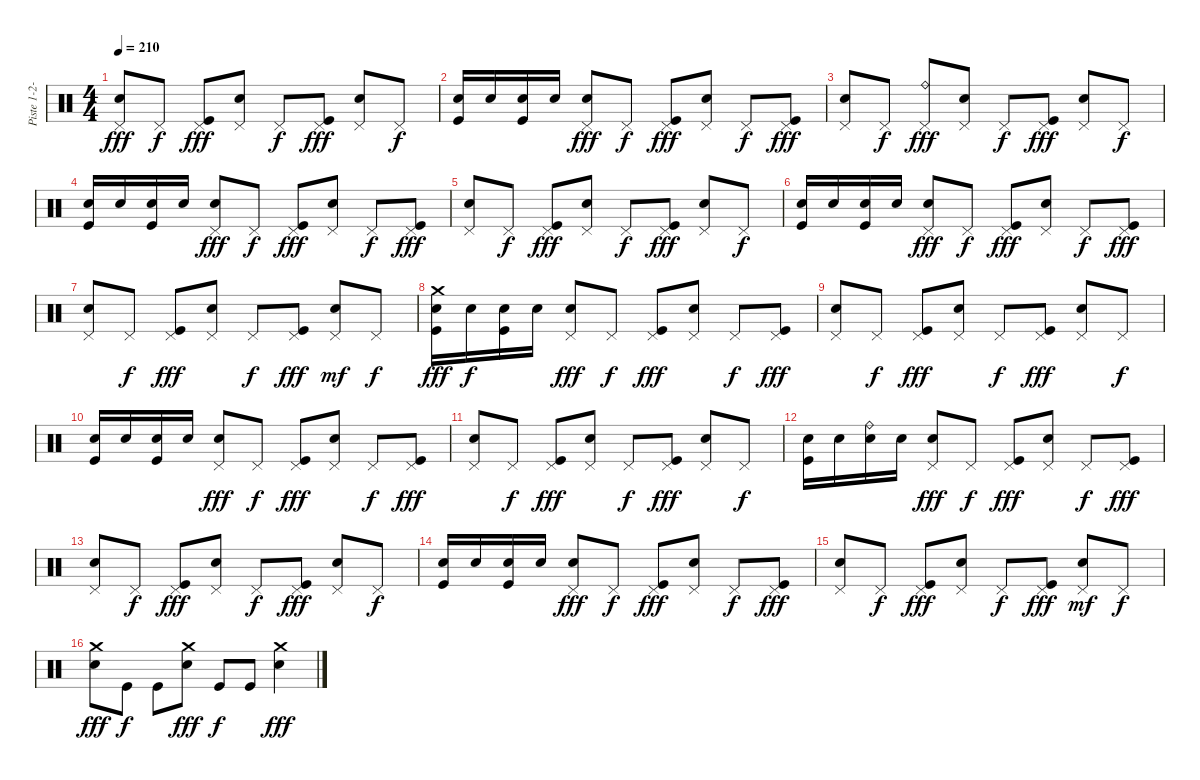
\track ("Piste 1-2-3-4" "Piste 1-2-") {instrument percussion}
\staff {score}
\articulation defaults
\ts (4 4)
\tempo 210
\clef neutral
\ks c
("Pedal Hi-Hat (hit)" "Snare (hit) 2").8{dy fff} "Pedal Hi-Hat (hit)".8{dy f} ("Pedal Hi-Hat (hit)" "Kick (hit)").8{dy fff} ("Pedal Hi-Hat (hit)" "Snare (hit) 2").8 "Pedal Hi-Hat (hit)".8{dy f} ("Pedal Hi-Hat (hit)" "Kick (hit)").8{dy fff} ("Pedal Hi-Hat (hit)" "Snare (hit) 2").8 "Pedal Hi-Hat (hit)".8{dy f} |
("Snare (hit) 2" "Kick (hit)").16 "Snare (hit) 2".16 ("Snare (hit) 2" "Kick (hit)").16 "Snare (hit) 2".16 ("Pedal Hi-Hat (hit)" "Snare (hit) 2").8{dy fff} "Pedal Hi-Hat (hit)".8{dy f} ("Pedal Hi-Hat (hit)" "Kick (hit)").8{dy fff} ("Pedal Hi-Hat (hit)" "Snare (hit) 2").8 "Pedal Hi-Hat (hit)".8{dy f} ("Pedal Hi-Hat (hit)" "Kick (hit)").8{dy fff} |
("Pedal Hi-Hat (hit)" "Snare (hit) 2").8 "Pedal Hi-Hat (hit)".8{dy f} ("Pedal Hi-Hat (hit)" "Ride (bell)").8{dy fff} ("Pedal Hi-Hat (hit)" "Snare (hit) 2").8 "Pedal Hi-Hat (hit)".8{dy f} ("Pedal Hi-Hat (hit)" "Kick (hit)").8{dy fff} ("Pedal Hi-Hat (hit)" "Snare (hit) 2").8 "Pedal Hi-Hat (hit)".8{dy f} |
("Snare (hit) 2" "Kick (hit)").16 "Snare (hit) 2".16 ("Snare (hit) 2" "Kick (hit)").16 "Snare (hit) 2".16 ("Pedal Hi-Hat (hit)" "Snare (hit) 2").8{dy fff} "Pedal Hi-Hat (hit)".8{dy f} ("Pedal Hi-Hat (hit)" "Kick (hit)").8{dy fff} ("Pedal Hi-Hat (hit)" "Snare (hit) 2").8 "Pedal Hi-Hat (hit)".8{dy f} ("Pedal Hi-Hat (hit)" "Kick (hit)").8{dy fff} |
("Pedal Hi-Hat (hit)" "Snare (hit) 2").8 "Pedal Hi-Hat (hit)".8{dy f} ("Pedal Hi-Hat (hit)" "Kick (hit)").8{dy fff} ("Pedal Hi-Hat (hit)" "Snare (hit) 2").8 "Pedal Hi-Hat (hit)".8{dy f} ("Pedal Hi-Hat (hit)" "Kick (hit)").8{dy fff} ("Pedal Hi-Hat (hit)" "Snare (hit) 2").8 "Pedal Hi-Hat (hit)".8{dy f} |
("Snare (hit) 2" "Kick (hit)").16 "Snare (hit) 2".16 ("Snare (hit) 2" "Kick (hit)").16 "Snare (hit) 2".16 ("Pedal Hi-Hat (hit)" "Snare (hit) 2").8{dy fff} "Pedal Hi-Hat (hit)".8{dy f} ("Pedal Hi-Hat (hit)" "Kick (hit)").8{dy fff} ("Pedal Hi-Hat (hit)" "Snare (hit) 2").8 "Pedal Hi-Hat (hit)".8{dy f} ("Pedal Hi-Hat (hit)" "Kick (hit)").8{dy fff} |
("Pedal Hi-Hat (hit)" "Snare (hit) 2").8 "Pedal Hi-Hat (hit)".8{dy f} ("Pedal Hi-Hat (hit)" "Kick (hit)").8{dy fff} ("Pedal Hi-Hat (hit)" "Snare (hit) 2").8 "Pedal Hi-Hat (hit)".8{dy f} ("Pedal Hi-Hat (hit)" "Kick (hit)").8{dy fff} ("Pedal Hi-Hat (hit)" "Snare (hit) 2").8{dy mf} "Pedal Hi-Hat (hit)".8{dy f} |
("Crash medium (hit)" "Snare (hit) 2" "Kick (hit)").16{dy fff} "Snare (hit) 2".16{dy f} ("Snare (hit) 2" "Kick (hit)").16 "Snare (hit) 2".16 ("Pedal Hi-Hat (hit)" "Snare (hit) 2").8{dy fff} "Pedal Hi-Hat (hit)".8{dy f} ("Pedal Hi-Hat (hit)" "Kick (hit)").8{dy fff} ("Pedal Hi-Hat (hit)" "Snare (hit) 2").8 "Pedal Hi-Hat (hit)".8{dy f} ("Pedal Hi-Hat (hit)" "Kick (hit)").8{dy fff} |
("Pedal Hi-Hat (hit)" "Snare (hit) 2").8 "Pedal Hi-Hat (hit)".8{dy f} ("Pedal Hi-Hat (hit)" "Kick (hit)").8{dy fff} ("Pedal Hi-Hat (hit)" "Snare (hit) 2").8 "Pedal Hi-Hat (hit)".8{dy f} ("Pedal Hi-Hat (hit)" "Kick (hit)").8{dy fff} ("Pedal Hi-Hat (hit)" "Snare (hit) 2").8 "Pedal Hi-Hat (hit)".8{dy f} |
("Snare (hit) 2" "Kick (hit)").16 "Snare (hit) 2".16 ("Snare (hit) 2" "Kick (hit)").16 "Snare (hit) 2".16 ("Pedal Hi-Hat (hit)" "Snare (hit) 2").8{dy fff} "Pedal Hi-Hat (hit)".8{dy f} ("Pedal Hi-Hat (hit)" "Kick (hit)").8{dy fff} ("Pedal Hi-Hat (hit)" "Snare (hit) 2").8 "Pedal Hi-Hat (hit)".8{dy f} ("Pedal Hi-Hat (hit)" "Kick (hit)").8{dy fff} |
("Pedal Hi-Hat (hit)" "Snare (hit) 2").8 "Pedal Hi-Hat (hit)".8{dy f} ("Pedal Hi-Hat (hit)" "Kick (hit)").8{dy fff} ("Pedal Hi-Hat (hit)" "Snare (hit) 2").8 "Pedal Hi-Hat (hit)".8{dy f} ("Pedal Hi-Hat (hit)" "Kick (hit)").8{dy fff} ("Pedal Hi-Hat (hit)" "Snare (hit) 2").8 "Pedal Hi-Hat (hit)".8{dy f} |
("Snare (hit) 2" "Kick (hit)").16 "Snare (hit) 2".16 ("Snare (hit) 2" "Ride (bell)").16 "Snare (hit) 2".16 ("Pedal Hi-Hat (hit)" "Snare (hit) 2").8{dy fff} "Pedal Hi-Hat (hit)".8{dy f} ("Pedal Hi-Hat (hit)" "Kick (hit)").8{dy fff} ("Pedal Hi-Hat (hit)" "Snare (hit) 2").8 "Pedal Hi-Hat (hit)".8{dy f} ("Pedal Hi-Hat (hit)" "Kick (hit)").8{dy fff} |
("Pedal Hi-Hat (hit)" "Snare (hit) 2").8 "Pedal Hi-Hat (hit)".8{dy f} ("Pedal Hi-Hat (hit)" "Kick (hit)").8{dy fff} ("Pedal Hi-Hat (hit)" "Snare (hit) 2").8 "Pedal Hi-Hat (hit)".8{dy f} ("Pedal Hi-Hat (hit)" "Kick (hit)").8{dy fff} ("Pedal Hi-Hat (hit)" "Snare (hit) 2").8 "Pedal Hi-Hat (hit)".8{dy f} |
("Snare (hit) 2" "Kick (hit)").16 "Snare (hit) 2".16 ("Snare (hit) 2" "Kick (hit)").16 "Snare (hit) 2".16 ("Pedal Hi-Hat (hit)" "Snare (hit) 2").8{dy fff} "Pedal Hi-Hat (hit)".8{dy f} ("Pedal Hi-Hat (hit)" "Kick (hit)").8{dy fff} ("Pedal Hi-Hat (hit)" "Snare (hit) 2").8 "Pedal Hi-Hat (hit)".8{dy f} ("Pedal Hi-Hat (hit)" "Kick (hit)").8{dy fff} |
("Pedal Hi-Hat (hit)" "Snare (hit) 2").8 "Pedal Hi-Hat (hit)".8{dy f} ("Pedal Hi-Hat (hit)" "Kick (hit)").8{dy fff} ("Pedal Hi-Hat (hit)" "Snare (hit) 2").8 "Pedal Hi-Hat (hit)".8{dy f} ("Pedal Hi-Hat (hit)" "Kick (hit)").8{dy fff} ("Pedal Hi-Hat (hit)" "Snare (hit) 2").8{dy mf} "Pedal Hi-Hat (hit)".8{dy f} |
("Crash medium (hit)" "Snare (hit) 2").8{dy fff} "Kick (hit)".8{dy f} "Kick (hit)".8 ("Crash medium (hit)" "Snare (hit) 2").8{dy fff} "Kick (hit)".8{dy f} "Kick (hit)".8 ("Crash medium (hit)" "Snare (hit) 2").4{dy fff}
